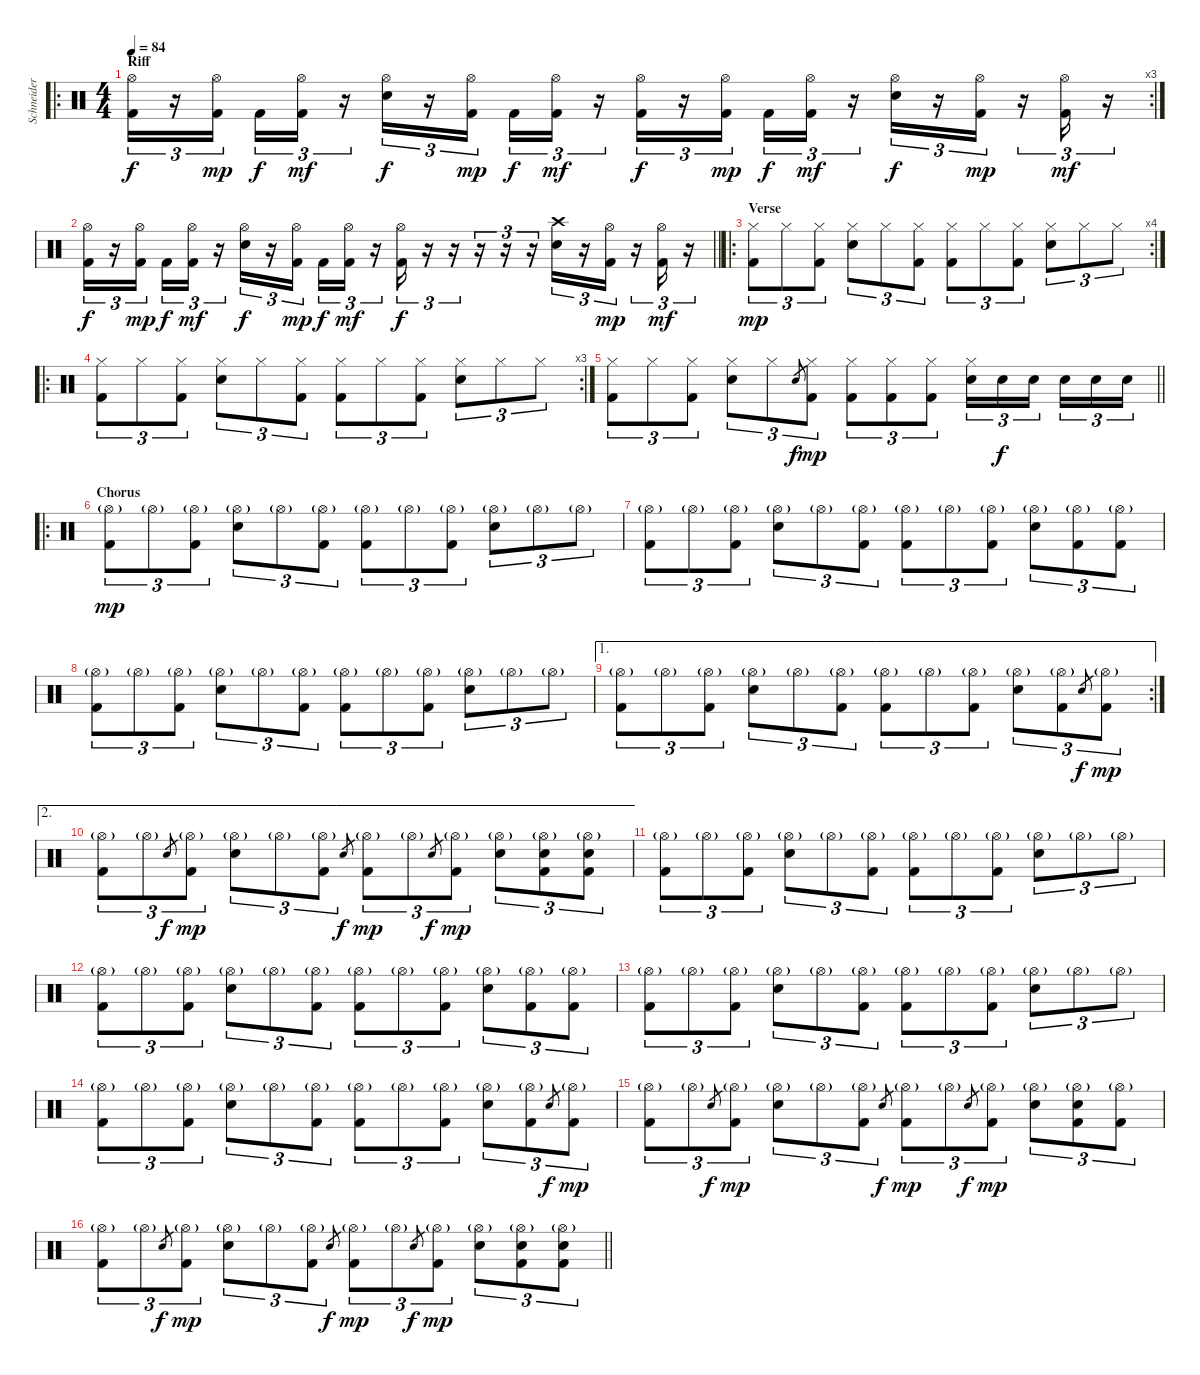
\track ("Schneider" "Schneider") {instrument percussion}
\staff {score}
\articulation defaults
\ro
\rc 3
\ts (4 4)
\section ("" "Riff")
\tempo 84
\clef neutral
\ks c
("Hi-Hat (open)" "Kick (hit) 2").16{tu (3 2) dy f} r.16{tu (3 2)} ("Hi-Hat (open)" "Kick (hit) 2").16{tu (3 2) dy mp beam splitsecondary} "Kick (hit) 2".16{tu (3 2) dy f} ("Hi-Hat (open)" "Kick (hit) 2").16{tu (3 2) dy mf} r.16{tu (3 2)} ("Hi-Hat (open)" "Electric Snare (hit)").16{tu (3 2) dy f} r.16{tu (3 2)} ("Hi-Hat (open)" "Kick (hit) 2").16{tu (3 2) dy mp beam splitsecondary} "Kick (hit) 2".16{tu (3 2) dy f} ("Hi-Hat (open)" "Kick (hit) 2").16{tu (3 2) dy mf} r.16{tu (3 2)} ("Hi-Hat (open)" "Kick (hit) 2").16{tu (3 2) dy f} r.16{tu (3 2)} ("Hi-Hat (open)" "Kick (hit) 2").16{tu (3 2) dy mp beam splitsecondary} "Kick (hit) 2".16{tu (3 2) dy f} ("Hi-Hat (open)" "Kick (hit) 2").16{tu (3 2) dy mf} r.16{tu (3 2)} ("Hi-Hat (open)" "Electric Snare (hit)").16{tu (3 2) dy f} r.16{tu (3 2)} ("Hi-Hat (open)" "Kick (hit) 2").16{tu (3 2) dy mp} r.16{tu (3 2)} ("Hi-Hat (open)" "Kick (hit) 2").16{tu (3 2) dy mf} r.16{tu (3 2)} |
\barLineRight lightlight
("Hi-Hat (open)" "Kick (hit) 2").16{tu (3 2) dy f} r.16{tu (3 2)} ("Hi-Hat (open)" "Kick (hit) 2").16{tu (3 2) dy mp beam splitsecondary} "Kick (hit) 2".16{tu (3 2) dy f} ("Hi-Hat (open)" "Kick (hit) 2").16{tu (3 2) dy mf} r.16{tu (3 2)} ("Hi-Hat (open)" "Electric Snare (hit)").16{tu (3 2) dy f} r.16{tu (3 2)} ("Hi-Hat (open)" "Kick (hit) 2").16{tu (3 2) dy mp beam splitsecondary} "Kick (hit) 2".16{tu (3 2) dy f} ("Hi-Hat (open)" "Kick (hit) 2").16{tu (3 2) dy mf} r.16{tu (3 2)} ("Hi-Hat (open)" "Kick (hit) 2").16{tu (3 2) dy f} r.16{tu (3 2)} r.16{tu (3 2)} r.16{tu (3 2)} r.16{tu (3 2)} r.16{tu (3 2)} ("Crash high (hit)" "Electric Snare (hit)").16{tu (3 2)} r.16{tu (3 2)} ("Hi-Hat (open)" "Kick (hit) 2").16{tu (3 2) dy mp} r.16{tu (3 2)} ("Hi-Hat (open)" "Kick (hit) 2").16{tu (3 2) dy mf} r.16{tu (3 2)} |
\ro
\rc 4
\section ("" "Verse")
("Hi-Hat (closed)" "Kick (hit) 2").8{tu (3 2) dy mp} "Hi-Hat (closed)".8{tu (3 2)} ("Hi-Hat (closed)" "Kick (hit) 2").8{tu (3 2)} ("Hi-Hat (closed)" "Electric Snare (hit)").8{tu (3 2)} "Hi-Hat (closed)".8{tu (3 2)} ("Hi-Hat (closed)" "Kick (hit) 2").8{tu (3 2)} ("Hi-Hat (closed)" "Kick (hit) 2").8{tu (3 2)} "Hi-Hat (closed)".8{tu (3 2)} ("Hi-Hat (closed)" "Kick (hit) 2").8{tu (3 2)} ("Hi-Hat (closed)" "Electric Snare (hit)").8{tu (3 2)} "Hi-Hat (closed)".8{tu (3 2)} "Hi-Hat (closed)".8{tu (3 2)} |
\ro
\rc 3
("Hi-Hat (closed)" "Kick (hit) 2").8{tu (3 2)} "Hi-Hat (closed)".8{tu (3 2)} ("Hi-Hat (closed)" "Kick (hit) 2").8{tu (3 2)} ("Hi-Hat (closed)" "Electric Snare (hit)").8{tu (3 2)} "Hi-Hat (closed)".8{tu (3 2)} ("Hi-Hat (closed)" "Kick (hit) 2").8{tu (3 2)} ("Hi-Hat (closed)" "Kick (hit) 2").8{tu (3 2)} "Hi-Hat (closed)".8{tu (3 2)} ("Hi-Hat (closed)" "Kick (hit) 2").8{tu (3 2)} ("Hi-Hat (closed)" "Electric Snare (hit)").8{tu (3 2)} "Hi-Hat (closed)".8{tu (3 2)} "Hi-Hat (closed)".8{tu (3 2)} |
\barLineRight lightlight
("Hi-Hat (closed)" "Kick (hit) 2").8{tu (3 2)} "Hi-Hat (closed)".8{tu (3 2)} ("Hi-Hat (closed)" "Kick (hit) 2").8{tu (3 2)} ("Hi-Hat (closed)" "Electric Snare (hit)").8{tu (3 2)} "Hi-Hat (closed)".8{tu (3 2)} "Electric Snare (hit)".8{gr dy f} ("Hi-Hat (closed)" "Kick (hit) 2").8{tu (3 2) dy mp} ("Hi-Hat (closed)" "Kick (hit) 2").8{tu (3 2)} ("Hi-Hat (closed)" "Kick (hit) 2").8{tu (3 2)} ("Hi-Hat (closed)" "Kick (hit) 2").8{tu (3 2)} ("Hi-Hat (closed)" "Electric Snare (hit)").16{tu (3 2)} "Electric Snare (hit)".16{tu (3 2) dy f} "Electric Snare (hit)".16{tu (3 2) beam splitsecondary} "Electric Snare (hit)".16{tu (3 2)} "Electric Snare (hit)".16{tu (3 2)} "Electric Snare (hit)".16{tu (3 2)} |
\ro
\section ("" "Chorus")
("Hi-Hat (open)"{g} "Kick (hit) 2").8{tu (3 2) dy mp} "Hi-Hat (open)"{g}.8{tu (3 2)} ("Hi-Hat (open)"{g} "Kick (hit) 2").8{tu (3 2)} ("Hi-Hat (open)"{g} "Electric Snare (hit)").8{tu (3 2)} "Hi-Hat (open)"{g}.8{tu (3 2)} ("Hi-Hat (open)"{g} "Kick (hit) 2").8{tu (3 2)} ("Hi-Hat (open)"{g} "Kick (hit) 2").8{tu (3 2)} "Hi-Hat (open)"{g}.8{tu (3 2)} ("Hi-Hat (open)"{g} "Kick (hit) 2").8{tu (3 2)} ("Hi-Hat (open)"{g} "Electric Snare (hit)").8{tu (3 2)} "Hi-Hat (open)"{g}.8{tu (3 2)} "Hi-Hat (open)"{g}.8{tu (3 2)} |
("Hi-Hat (open)"{g} "Kick (hit) 2").8{tu (3 2)} "Hi-Hat (open)"{g}.8{tu (3 2)} ("Hi-Hat (open)"{g} "Kick (hit) 2").8{tu (3 2)} ("Hi-Hat (open)"{g} "Electric Snare (hit)").8{tu (3 2)} "Hi-Hat (open)"{g}.8{tu (3 2)} ("Hi-Hat (open)"{g} "Kick (hit) 2").8{tu (3 2)} ("Hi-Hat (open)"{g} "Kick (hit) 2").8{tu (3 2)} "Hi-Hat (open)"{g}.8{tu (3 2)} ("Hi-Hat (open)"{g} "Kick (hit) 2").8{tu (3 2)} ("Hi-Hat (open)"{g} "Electric Snare (hit)").8{tu (3 2)} ("Hi-Hat (open)"{g} "Kick (hit) 2").8{tu (3 2)} ("Hi-Hat (open)"{g} "Kick (hit) 2").8{tu (3 2)} |
("Hi-Hat (open)"{g} "Kick (hit) 2").8{tu (3 2)} "Hi-Hat (open)"{g}.8{tu (3 2)} ("Hi-Hat (open)"{g} "Kick (hit) 2").8{tu (3 2)} ("Hi-Hat (open)"{g} "Electric Snare (hit)").8{tu (3 2)} "Hi-Hat (open)"{g}.8{tu (3 2)} ("Hi-Hat (open)"{g} "Kick (hit) 2").8{tu (3 2)} ("Hi-Hat (open)"{g} "Kick (hit) 2").8{tu (3 2)} "Hi-Hat (open)"{g}.8{tu (3 2)} ("Hi-Hat (open)"{g} "Kick (hit) 2").8{tu (3 2)} ("Hi-Hat (open)"{g} "Electric Snare (hit)").8{tu (3 2)} "Hi-Hat (open)"{g}.8{tu (3 2)} "Hi-Hat (open)"{g}.8{tu (3 2)} |
\ae 1
\rc 2
("Hi-Hat (open)"{g} "Kick (hit) 2").8{tu (3 2)} "Hi-Hat (open)"{g}.8{tu (3 2)} ("Hi-Hat (open)"{g} "Kick (hit) 2").8{tu (3 2)} ("Hi-Hat (open)"{g} "Electric Snare (hit)").8{tu (3 2)} "Hi-Hat (open)"{g}.8{tu (3 2)} ("Hi-Hat (open)"{g} "Kick (hit) 2").8{tu (3 2)} ("Hi-Hat (open)"{g} "Kick (hit) 2").8{tu (3 2)} "Hi-Hat (open)"{g}.8{tu (3 2)} ("Hi-Hat (open)"{g} "Kick (hit) 2").8{tu (3 2)} ("Hi-Hat (open)"{g} "Electric Snare (hit)").8{tu (3 2)} ("Hi-Hat (open)"{g} "Kick (hit) 2").8{tu (3 2)} "Electric Snare (hit)".8{gr dy f} ("Hi-Hat (open)"{g} "Kick (hit) 2").8{tu (3 2) dy mp} |
\ae 2
("Hi-Hat (open)"{g} "Kick (hit) 2").8{tu (3 2)} "Hi-Hat (open)"{g}.8{tu (3 2)} "Electric Snare (hit)".8{gr dy f} ("Hi-Hat (open)"{g} "Kick (hit) 2").8{tu (3 2) dy mp} ("Hi-Hat (open)"{g} "Electric Snare (hit)").8{tu (3 2)} "Hi-Hat (open)"{g}.8{tu (3 2)} ("Hi-Hat (open)"{g} "Kick (hit) 2").8{tu (3 2)} "Electric Snare (hit)".8{gr dy f} ("Hi-Hat (open)"{g} "Kick (hit) 2").8{tu (3 2) dy mp} "Hi-Hat (open)"{g}.8{tu (3 2)} "Electric Snare (hit)".8{gr dy f} ("Hi-Hat (open)"{g} "Kick (hit) 2").8{tu (3 2) dy mp} ("Hi-Hat (open)"{g} "Electric Snare (hit)").8{tu (3 2)} ("Hi-Hat (open)"{g} "Kick (hit) 2" "Electric Snare (hit)").8{tu (3 2)} ("Hi-Hat (open)"{g} "Kick (hit) 2" "Electric Snare (hit)").8{tu (3 2)} |
("Hi-Hat (open)"{g} "Kick (hit) 2").8{tu (3 2)} "Hi-Hat (open)"{g}.8{tu (3 2)} ("Hi-Hat (open)"{g} "Kick (hit) 2").8{tu (3 2)} ("Hi-Hat (open)"{g} "Electric Snare (hit)").8{tu (3 2)} "Hi-Hat (open)"{g}.8{tu (3 2)} ("Hi-Hat (open)"{g} "Kick (hit) 2").8{tu (3 2)} ("Hi-Hat (open)"{g} "Kick (hit) 2").8{tu (3 2)} "Hi-Hat (open)"{g}.8{tu (3 2)} ("Hi-Hat (open)"{g} "Kick (hit) 2").8{tu (3 2)} ("Hi-Hat (open)"{g} "Electric Snare (hit)").8{tu (3 2)} "Hi-Hat (open)"{g}.8{tu (3 2)} "Hi-Hat (open)"{g}.8{tu (3 2)} |
("Hi-Hat (open)"{g} "Kick (hit) 2").8{tu (3 2)} "Hi-Hat (open)"{g}.8{tu (3 2)} ("Hi-Hat (open)"{g} "Kick (hit) 2").8{tu (3 2)} ("Hi-Hat (open)"{g} "Electric Snare (hit)").8{tu (3 2)} "Hi-Hat (open)"{g}.8{tu (3 2)} ("Hi-Hat (open)"{g} "Kick (hit) 2").8{tu (3 2)} ("Hi-Hat (open)"{g} "Kick (hit) 2").8{tu (3 2)} "Hi-Hat (open)"{g}.8{tu (3 2)} ("Hi-Hat (open)"{g} "Kick (hit) 2").8{tu (3 2)} ("Hi-Hat (open)"{g} "Electric Snare (hit)").8{tu (3 2)} ("Hi-Hat (open)"{g} "Kick (hit) 2").8{tu (3 2)} ("Hi-Hat (open)"{g} "Kick (hit) 2").8{tu (3 2)} |
("Hi-Hat (open)"{g} "Kick (hit) 2").8{tu (3 2)} "Hi-Hat (open)"{g}.8{tu (3 2)} ("Hi-Hat (open)"{g} "Kick (hit) 2").8{tu (3 2)} ("Hi-Hat (open)"{g} "Electric Snare (hit)").8{tu (3 2)} "Hi-Hat (open)"{g}.8{tu (3 2)} ("Hi-Hat (open)"{g} "Kick (hit) 2").8{tu (3 2)} ("Hi-Hat (open)"{g} "Kick (hit) 2").8{tu (3 2)} "Hi-Hat (open)"{g}.8{tu (3 2)} ("Hi-Hat (open)"{g} "Kick (hit) 2").8{tu (3 2)} ("Hi-Hat (open)"{g} "Electric Snare (hit)").8{tu (3 2)} "Hi-Hat (open)"{g}.8{tu (3 2)} "Hi-Hat (open)"{g}.8{tu (3 2)} |
("Hi-Hat (open)"{g} "Kick (hit) 2").8{tu (3 2)} "Hi-Hat (open)"{g}.8{tu (3 2)} ("Hi-Hat (open)"{g} "Kick (hit) 2").8{tu (3 2)} ("Hi-Hat (open)"{g} "Electric Snare (hit)").8{tu (3 2)} "Hi-Hat (open)"{g}.8{tu (3 2)} ("Hi-Hat (open)"{g} "Kick (hit) 2").8{tu (3 2)} ("Hi-Hat (open)"{g} "Kick (hit) 2").8{tu (3 2)} "Hi-Hat (open)"{g}.8{tu (3 2)} ("Hi-Hat (open)"{g} "Kick (hit) 2").8{tu (3 2)} ("Hi-Hat (open)"{g} "Electric Snare (hit)").8{tu (3 2)} ("Hi-Hat (open)"{g} "Kick (hit) 2").8{tu (3 2)} "Electric Snare (hit)".8{gr dy f} ("Hi-Hat (open)"{g} "Kick (hit) 2").8{tu (3 2) dy mp} |
("Hi-Hat (open)"{g} "Kick (hit) 2").8{tu (3 2)} "Hi-Hat (open)"{g}.8{tu (3 2)} "Electric Snare (hit)".8{gr dy f} ("Hi-Hat (open)"{g} "Kick (hit) 2").8{tu (3 2) dy mp} ("Hi-Hat (open)"{g} "Electric Snare (hit)").8{tu (3 2)} "Hi-Hat (open)"{g}.8{tu (3 2)} ("Hi-Hat (open)"{g} "Kick (hit) 2").8{tu (3 2)} "Electric Snare (hit)".8{gr dy f} ("Hi-Hat (open)"{g} "Kick (hit) 2").8{tu (3 2) dy mp} "Hi-Hat (open)"{g}.8{tu (3 2)} "Electric Snare (hit)".8{gr dy f} ("Hi-Hat (open)"{g} "Kick (hit) 2").8{tu (3 2) dy mp} ("Hi-Hat (open)"{g} "Electric Snare (hit)").8{tu (3 2)} ("Hi-Hat (open)"{g} "Kick (hit) 2" "Electric Snare (hit)").8{tu (3 2)} ("Hi-Hat (open)"{g} "Kick (hit) 2").8{tu (3 2)} |
\barLineRight lightlight
("Hi-Hat (open)"{g} "Kick (hit) 2").8{tu (3 2)} "Hi-Hat (open)"{g}.8{tu (3 2)} "Electric Snare (hit)".8{gr dy f} ("Hi-Hat (open)"{g} "Kick (hit) 2").8{tu (3 2) dy mp} ("Hi-Hat (open)"{g} "Electric Snare (hit)").8{tu (3 2)} "Hi-Hat (open)"{g}.8{tu (3 2)} ("Hi-Hat (open)"{g} "Kick (hit) 2").8{tu (3 2)} "Electric Snare (hit)".8{gr dy f} ("Hi-Hat (open)"{g} "Kick (hit) 2").8{tu (3 2) dy mp} "Hi-Hat (open)"{g}.8{tu (3 2)} "Electric Snare (hit)".8{gr dy f} ("Hi-Hat (open)"{g} "Kick (hit) 2").8{tu (3 2) dy mp} ("Hi-Hat (open)"{g} "Electric Snare (hit)").8{tu (3 2)} ("Hi-Hat (open)"{g} "Kick (hit) 2" "Electric Snare (hit)").8{tu (3 2)} ("Hi-Hat (open)"{g} "Kick (hit) 2" "Electric Snare (hit)").8{tu (3 2)}
